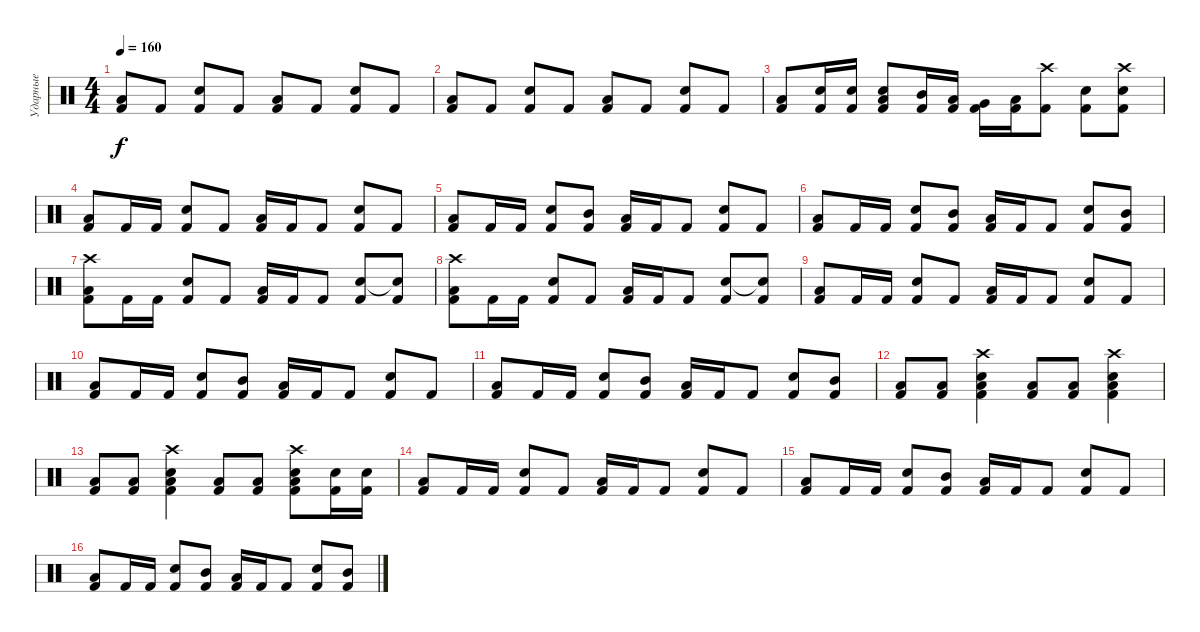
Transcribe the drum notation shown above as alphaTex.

\track ("Ударные" "Ударные") {instrument percussion}
\staff {score}
\articulation defaults
\ts (4 4)
\tempo 160
\clef neutral
\ks c
("Low Tom (hit)" "Kick (hit) 2").8{dy f} "Kick (hit) 2".8 ("Snare (hit) 2" "Kick (hit) 2").8 "Kick (hit) 2".8 ("Low Tom (hit)" "Kick (hit) 2").8 "Kick (hit) 2".8 ("Snare (hit) 2" "Kick (hit) 2").8 "Kick (hit) 2".8 |
("Low Tom (hit)" "Kick (hit) 2").8 "Kick (hit) 2".8 ("Snare (hit) 2" "Kick (hit) 2").8 "Kick (hit) 2".8 ("Low Tom (hit)" "Kick (hit) 2").8 "Kick (hit) 2".8 ("Snare (hit) 2" "Kick (hit) 2").8 "Kick (hit) 2".8 |
("Low Tom (hit)" "Kick (hit) 2").8 ("Snare (hit) 2" "Kick (hit) 2").16 ("Snare (hit) 2" "Kick (hit) 2").16 ("Low Tom (hit)" "Snare (hit) 2" "Kick (hit) 2").8 ("Mid Tom (hit)" "Kick (hit) 2").16 ("Low Tom (hit)" "Kick (hit) 2").16 ("Very Low Tom (hit)" "Kick (hit) 2").16 ("Low Floor Tom (hit)" "Kick (hit) 2").16 ("Crash high (hit)" "Kick (hit) 2").8 ("Snare (hit) 2" "Kick (hit) 2").8 ("Crash high (hit)" "Snare (hit) 2" "Kick (hit) 2").8 |
("Low Tom (hit)" "Kick (hit) 2").8 "Kick (hit) 2".16 "Kick (hit) 2".16 ("Snare (hit) 2" "Kick (hit) 2").8 "Kick (hit) 2".8 ("Low Tom (hit)" "Kick (hit) 2").16 "Kick (hit) 2".16 "Kick (hit) 2".8 ("Snare (hit) 2" "Kick (hit) 2").8 "Kick (hit) 2".8 |
("Low Tom (hit)" "Kick (hit) 2").8 "Kick (hit) 2".16 "Kick (hit) 2".16 ("Snare (hit) 2" "Kick (hit) 2").8 ("Mid Tom (hit)" "Kick (hit) 2").8 ("Low Tom (hit)" "Kick (hit) 2").16 "Kick (hit) 2".16 "Kick (hit) 2".8 ("Snare (hit) 2" "Kick (hit) 2").8 "Kick (hit) 2".8 |
("Low Tom (hit)" "Kick (hit) 2").8 "Kick (hit) 2".16 "Kick (hit) 2".16 ("Snare (hit) 2" "Kick (hit) 2").8 ("Mid Tom (hit)" "Kick (hit) 2").8 ("Low Tom (hit)" "Kick (hit) 2").16 "Kick (hit) 2".16 "Kick (hit) 2".8 ("Snare (hit) 2" "Kick (hit) 2").8 ("Mid Tom (hit)" "Kick (hit) 2").8 |
("Crash high (hit)" "Low Tom (hit)" "Kick (hit) 2").8 "Kick (hit) 2".16 "Kick (hit) 2".16 ("Snare (hit) 2" "Kick (hit) 2").8 "Kick (hit) 2".8 ("Low Tom (hit)" "Kick (hit) 2").16 "Kick (hit) 2".16 "Kick (hit) 2".8 ("Snare (hit) 2" "Kick (hit) 2").8 ("Snare (hit)"{t} "Kick (hit) 2").8 |
("Crash high (hit)" "Low Tom (hit)" "Kick (hit) 2").8 "Kick (hit) 2".16 "Kick (hit) 2".16 ("Snare (hit) 2" "Kick (hit) 2").8 "Kick (hit) 2".8 ("Low Tom (hit)" "Kick (hit) 2").16 "Kick (hit) 2".16 "Kick (hit) 2".8 ("Snare (hit) 2" "Kick (hit) 2").8 ("Snare (hit)"{t} "Kick (hit) 2").8 |
("Low Tom (hit)" "Kick (hit) 2").8 "Kick (hit) 2".16 "Kick (hit) 2".16 ("Snare (hit) 2" "Kick (hit) 2").8 "Kick (hit) 2".8 ("Low Tom (hit)" "Kick (hit) 2").16 "Kick (hit) 2".16 "Kick (hit) 2".8 ("Snare (hit) 2" "Kick (hit) 2").8 "Kick (hit) 2".8 |
("Low Tom (hit)" "Kick (hit) 2").8 "Kick (hit) 2".16 "Kick (hit) 2".16 ("Snare (hit) 2" "Kick (hit) 2").8 ("Mid Tom (hit)" "Kick (hit) 2").8 ("Low Tom (hit)" "Kick (hit) 2").16 "Kick (hit) 2".16 "Kick (hit) 2".8 ("Snare (hit) 2" "Kick (hit) 2").8 "Kick (hit) 2".8 |
("Low Tom (hit)" "Kick (hit) 2").8 "Kick (hit) 2".16 "Kick (hit) 2".16 ("Snare (hit) 2" "Kick (hit) 2").8 ("Mid Tom (hit)" "Kick (hit) 2").8 ("Low Tom (hit)" "Kick (hit) 2").16 "Kick (hit) 2".16 "Kick (hit) 2".8 ("Snare (hit) 2" "Kick (hit) 2").8 ("Mid Tom (hit)" "Kick (hit) 2").8 |
("Low Tom (hit)" "Kick (hit) 2").8 ("Low Tom (hit)" "Kick (hit) 2").8 ("Crash high (hit)" "Snare (hit) 2" "Low Tom (hit)" "Kick (hit) 2").4 ("Low Tom (hit)" "Kick (hit) 2").8 ("Low Tom (hit)" "Kick (hit) 2").8 ("Crash high (hit)" "Snare (hit) 2" "Low Tom (hit)" "Kick (hit) 2").4 |
("Low Tom (hit)" "Kick (hit) 2").8 ("Low Tom (hit)" "Kick (hit) 2").8 ("Crash high (hit)" "Snare (hit) 2" "Low Tom (hit)" "Kick (hit) 2").4 ("Low Tom (hit)" "Kick (hit) 2").8 ("Low Tom (hit)" "Kick (hit) 2").8 ("Crash high (hit)" "Snare (hit) 2" "Low Tom (hit)" "Kick (hit) 2").8 ("Snare (hit) 2" "Kick (hit) 2").16 ("Snare (hit) 2" "Kick (hit) 2").16 |
("Low Tom (hit)" "Kick (hit) 2").8 "Kick (hit) 2".16 "Kick (hit) 2".16 ("Snare (hit) 2" "Kick (hit) 2").8 "Kick (hit) 2".8 ("Low Tom (hit)" "Kick (hit) 2").16 "Kick (hit) 2".16 "Kick (hit) 2".8 ("Snare (hit) 2" "Kick (hit) 2").8 "Kick (hit) 2".8 |
("Low Tom (hit)" "Kick (hit) 2").8 "Kick (hit) 2".16 "Kick (hit) 2".16 ("Snare (hit) 2" "Kick (hit) 2").8 ("Mid Tom (hit)" "Kick (hit) 2").8 ("Low Tom (hit)" "Kick (hit) 2").16 "Kick (hit) 2".16 "Kick (hit) 2".8 ("Snare (hit) 2" "Kick (hit) 2").8 "Kick (hit) 2".8 |
("Low Tom (hit)" "Kick (hit) 2").8 "Kick (hit) 2".16 "Kick (hit) 2".16 ("Snare (hit) 2" "Kick (hit) 2").8 ("Mid Tom (hit)" "Kick (hit) 2").8 ("Low Tom (hit)" "Kick (hit) 2").16 "Kick (hit) 2".16 "Kick (hit) 2".8 ("Snare (hit) 2" "Kick (hit) 2").8 ("Mid Tom (hit)" "Kick (hit) 2").8
